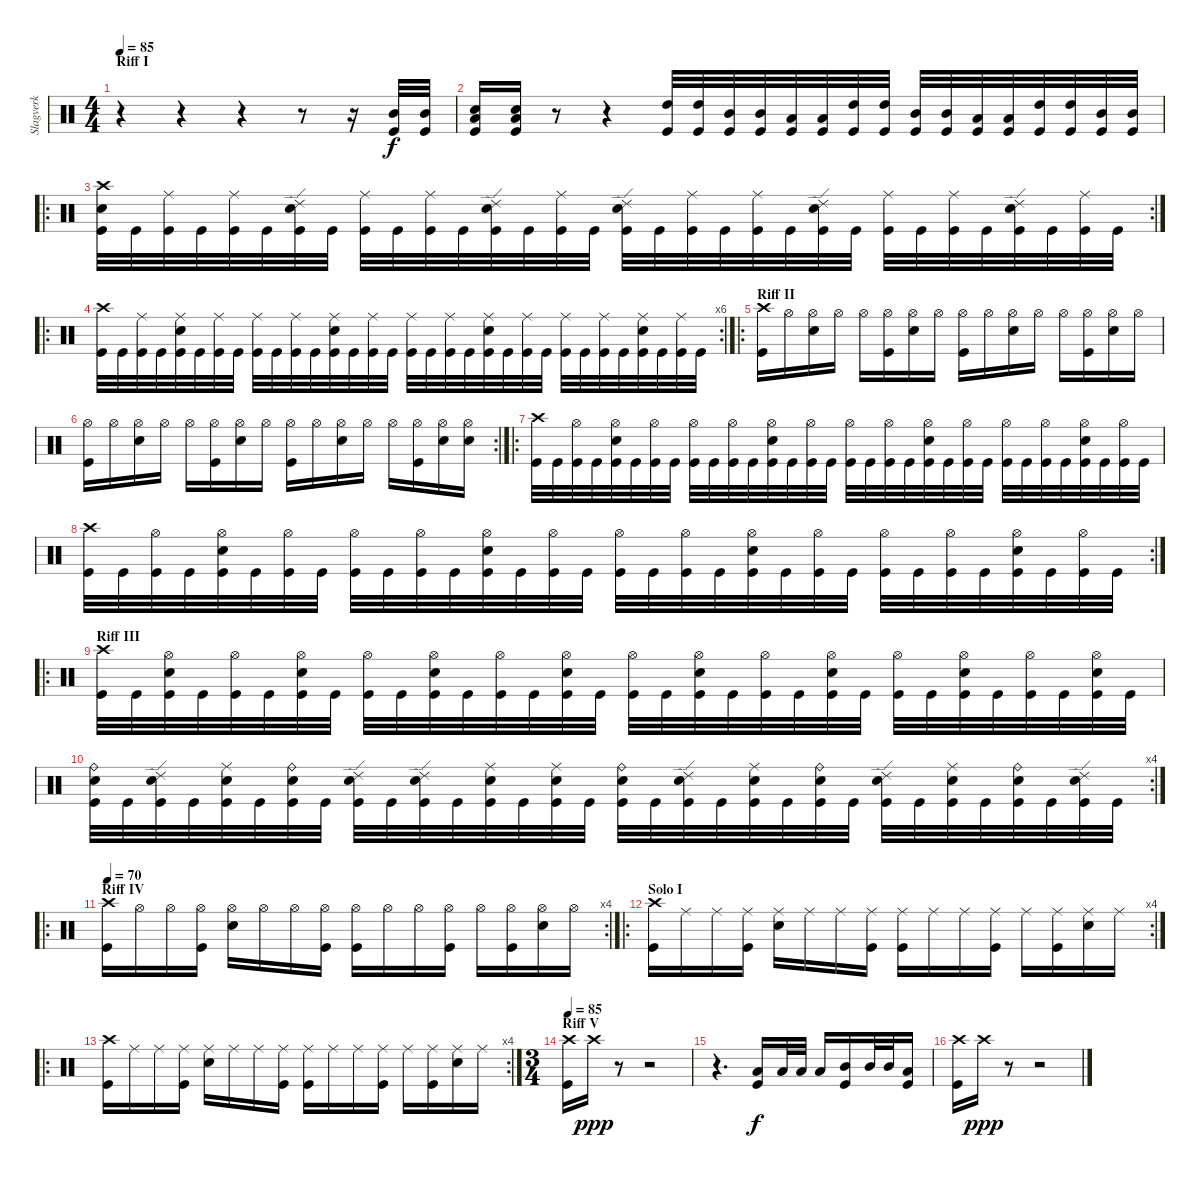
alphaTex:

\track ("Slagverk" "Slagverk") {instrument percussion}
\staff {score}
\articulation defaults
\ts (4 4)
\section ("" "Riff I")
\tempo 85
\clef neutral
\ks c
r.4{dy f} r.4 r.4 r.8 r.16 ("Mid Tom (hit)" "Kick (hit)").32 ("Mid Tom (hit)" "Kick (hit)").32 |
("Low Tom (hit)" "Snare (hit) 2" "Kick (hit)").16 ("Low Tom (hit)" "Snare (hit) 2" "Kick (hit)").16 r.8 r.4 ("High Tom (hit)" "Kick (hit)").32 ("High Tom (hit)" "Kick (hit)").32 ("Mid Tom (hit)" "Kick (hit)").32 ("Mid Tom (hit)" "Kick (hit)").32 ("Low Tom (hit)" "Kick (hit)").32 ("Low Tom (hit)" "Kick (hit)").32 ("High Tom (hit)" "Kick (hit)").32 ("High Tom (hit)" "Kick (hit)").32 ("Mid Tom (hit)" "Kick (hit)").32 ("Mid Tom (hit)" "Kick (hit)").32 ("Low Tom (hit)" "Kick (hit)").32 ("Low Tom (hit)" "Kick (hit)").32 ("High Tom (hit)" "Kick (hit)").32 ("High Tom (hit)" "Kick (hit)").32 ("Mid Tom (hit)" "Kick (hit)").32 ("Mid Tom (hit)" "Kick (hit)").32 |
\ro
\rc 2
("Crash high (hit)" "Snare (hit) 2" "Kick (hit)").32 "Kick (hit)".32 ("Ride (middle)" "Kick (hit)").32 "Kick (hit)".32 ("Ride (middle)" "Kick (hit)").32 "Kick (hit)".32 ("Ride (edge) 2" "Snare (hit) 2" "Kick (hit)").32 "Kick (hit)".32 ("Ride (middle)" "Kick (hit)").32 "Kick (hit)".32 ("Ride (middle)" "Kick (hit)").32 "Kick (hit)".32 ("Ride (edge) 2" "Snare (hit) 2" "Kick (hit)").32 "Kick (hit)".32 ("Ride (middle)" "Kick (hit)").32 "Kick (hit)".32 ("Ride (edge) 2" "Snare (hit) 2" "Kick (hit)").32 "Kick (hit)".32 ("Ride (middle)" "Kick (hit)").32 "Kick (hit)".32 ("Ride (middle)" "Kick (hit)").32 "Kick (hit)".32 ("Ride (edge) 2" "Snare (hit) 2" "Kick (hit)").32 "Kick (hit)".32 ("Ride (middle)" "Kick (hit)").32 "Kick (hit)".32 ("Ride (middle)" "Kick (hit)").32 "Kick (hit)".32 ("Ride (edge) 2" "Snare (hit) 2" "Kick (hit)").32 "Kick (hit)".32 ("Ride (middle)" "Kick (hit)").32 "Kick (hit)".32 |
\ro
\rc 6
("Crash high (hit)" "Kick (hit)").32 "Kick (hit)".32 ("Ride (middle)" "Kick (hit)").32 "Kick (hit)".32 ("Ride (middle)" "Snare (hit) 2" "Kick (hit)").32 "Kick (hit)".32 ("Ride (middle)" "Kick (hit)").32 "Kick (hit)".32 ("Ride (middle)" "Kick (hit)").32 "Kick (hit)".32 ("Ride (middle)" "Kick (hit)").32 "Kick (hit)".32 ("Ride (middle)" "Snare (hit) 2" "Kick (hit)").32 "Kick (hit)".32 ("Ride (middle)" "Kick (hit)").32 "Kick (hit)".32 ("Ride (middle)" "Kick (hit)").32 "Kick (hit)".32 ("Ride (middle)" "Kick (hit)").32 "Kick (hit)".32 ("Ride (middle)" "Snare (hit) 2" "Kick (hit)").32 "Kick (hit)".32 ("Ride (middle)" "Kick (hit)").32 "Kick (hit)".32 ("Ride (middle)" "Kick (hit)").32 "Kick (hit)".32 ("Ride (middle)" "Kick (hit)").32 "Kick (hit)".32 ("Ride (middle)" "Snare (hit) 2" "Kick (hit)").32 "Kick (hit)".32 ("Ride (middle)" "Kick (hit)").32 "Kick (hit)".32 |
\ro
\section ("" "Riff II")
("Crash high (hit)" "Kick (hit)").16 "Hi-Hat (open)".16 ("Hi-Hat (open)" "Snare (hit) 2").16 "Hi-Hat (open)".16 "Hi-Hat (open)".16 ("Hi-Hat (open)" "Kick (hit)").16 ("Hi-Hat (open)" "Snare (hit) 2").16 "Hi-Hat (open)".16 ("Hi-Hat (open)" "Kick (hit)").16 "Hi-Hat (open)".16 ("Hi-Hat (open)" "Snare (hit) 2").16 "Hi-Hat (open)".16 "Hi-Hat (open)".16 ("Hi-Hat (open)" "Kick (hit)").16 ("Hi-Hat (open)" "Snare (hit) 2").16 "Hi-Hat (open)".16 |
\rc 2
("Hi-Hat (open)" "Kick (hit)").16 "Hi-Hat (open)".16 ("Hi-Hat (open)" "Snare (hit) 2").16 "Hi-Hat (open)".16 "Hi-Hat (open)".16 ("Hi-Hat (open)" "Kick (hit)").16 ("Hi-Hat (open)" "Snare (hit) 2").16 "Hi-Hat (open)".16 ("Hi-Hat (open)" "Kick (hit)").16 "Hi-Hat (open)".16 ("Hi-Hat (open)" "Snare (hit) 2").16 "Hi-Hat (open)".16 "Hi-Hat (open)".16 ("Hi-Hat (open)" "Kick (hit)").16 ("Hi-Hat (open)" "Snare (hit) 2").16 ("Hi-Hat (open)" "Snare (hit) 2").16 |
\ro
("Crash high (hit)" "Kick (hit)").32 "Kick (hit)".32 ("Hi-Hat (open)" "Kick (hit)").32 "Kick (hit)".32 ("Hi-Hat (open)" "Snare (hit) 2" "Kick (hit)").32 "Kick (hit)".32 ("Hi-Hat (open)" "Kick (hit)").32 "Kick (hit)".32 ("Hi-Hat (open)" "Kick (hit)").32 "Kick (hit)".32 ("Hi-Hat (open)" "Kick (hit)").32 "Kick (hit)".32 ("Hi-Hat (open)" "Snare (hit) 2" "Kick (hit)").32 "Kick (hit)".32 ("Hi-Hat (open)" "Kick (hit)").32 "Kick (hit)".32 ("Hi-Hat (open)" "Kick (hit)").32 "Kick (hit)".32 ("Hi-Hat (open)" "Kick (hit)").32 "Kick (hit)".32 ("Hi-Hat (open)" "Snare (hit) 2" "Kick (hit)").32 "Kick (hit)".32 ("Hi-Hat (open)" "Kick (hit)").32 "Kick (hit)".32 ("Hi-Hat (open)" "Kick (hit)").32 "Kick (hit)".32 ("Hi-Hat (open)" "Kick (hit)").32 "Kick (hit)".32 ("Hi-Hat (open)" "Snare (hit) 2" "Kick (hit)").32 "Kick (hit)".32 ("Hi-Hat (open)" "Kick (hit)").32 "Kick (hit)".32 |
\rc 2
("Crash high (hit)" "Kick (hit)").32 "Kick (hit)".32 ("Hi-Hat (open)" "Kick (hit)").32 "Kick (hit)".32 ("Hi-Hat (open)" "Snare (hit) 2" "Kick (hit)").32 "Kick (hit)".32 ("Hi-Hat (open)" "Kick (hit)").32 "Kick (hit)".32 ("Hi-Hat (open)" "Kick (hit)").32 "Kick (hit)".32 ("Hi-Hat (open)" "Kick (hit)").32 "Kick (hit)".32 ("Hi-Hat (open)" "Snare (hit) 2" "Kick (hit)").32 "Kick (hit)".32 ("Hi-Hat (open)" "Kick (hit)").32 "Kick (hit)".32 ("Hi-Hat (open)" "Kick (hit)").32 "Kick (hit)".32 ("Hi-Hat (open)" "Kick (hit)").32 "Kick (hit)".32 ("Hi-Hat (open)" "Snare (hit) 2" "Kick (hit)").32 "Kick (hit)".32 ("Hi-Hat (open)" "Kick (hit)").32 "Kick (hit)".32 ("Hi-Hat (open)" "Kick (hit)").32 "Kick (hit)".32 ("Hi-Hat (open)" "Kick (hit)").32 "Kick (hit)".32 ("Hi-Hat (open)" "Snare (hit) 2" "Kick (hit)").32 "Kick (hit)".32 ("Hi-Hat (open)" "Kick (hit)").32 "Kick (hit)".32 |
\ro
\section ("" "Riff III")
("Crash high (hit)" "Kick (hit)").32 "Kick (hit)".32 ("Hi-Hat (open)" "Snare (hit) 2" "Kick (hit)").32 "Kick (hit)".32 ("Hi-Hat (open)" "Kick (hit)").32 "Kick (hit)".32 ("Hi-Hat (open)" "Snare (hit) 2" "Kick (hit)").32 "Kick (hit)".32 ("Hi-Hat (open)" "Kick (hit)").32 "Kick (hit)".32 ("Hi-Hat (open)" "Snare (hit) 2" "Kick (hit)").32 "Kick (hit)".32 ("Hi-Hat (open)" "Kick (hit)").32 "Kick (hit)".32 ("Hi-Hat (open)" "Snare (hit) 2" "Kick (hit)").32 "Kick (hit)".32 ("Hi-Hat (open)" "Kick (hit)").32 "Kick (hit)".32 ("Hi-Hat (open)" "Snare (hit) 2" "Kick (hit)").32 "Kick (hit)".32 ("Hi-Hat (open)" "Kick (hit)").32 "Kick (hit)".32 ("Hi-Hat (open)" "Snare (hit) 2" "Kick (hit)").32 "Kick (hit)".32 ("Hi-Hat (open)" "Kick (hit)").32 "Kick (hit)".32 ("Hi-Hat (open)" "Snare (hit) 2" "Kick (hit)").32 "Kick (hit)".32 ("Hi-Hat (open)" "Kick (hit)").32 "Kick (hit)".32 ("Hi-Hat (open)" "Snare (hit) 2" "Kick (hit)").32 "Kick (hit)".32 |
\rc 4
("Ride (bell)" "Snare (hit) 2" "Kick (hit)").32 "Kick (hit)".32 ("Ride (edge) 2" "Snare (hit) 2" "Kick (hit)").32 "Kick (hit)".32 ("Ride (middle)" "Snare (hit) 2" "Kick (hit)").32 "Kick (hit)".32 ("Ride (bell)" "Snare (hit) 2" "Kick (hit)").32 "Kick (hit)".32 ("Ride (edge) 2" "Snare (hit) 2" "Kick (hit)").32 "Kick (hit)".32 ("Ride (edge) 2" "Snare (hit) 2" "Kick (hit)").32 "Kick (hit)".32 ("Ride (middle)" "Snare (hit) 2" "Kick (hit)").32 "Kick (hit)".32 ("Ride (middle)" "Snare (hit) 2" "Kick (hit)").32 "Kick (hit)".32 ("Ride (bell)" "Snare (hit) 2" "Kick (hit)").32 "Kick (hit)".32 ("Ride (edge) 2" "Snare (hit) 2" "Kick (hit)").32 "Kick (hit)".32 ("Ride (middle)" "Snare (hit) 2" "Kick (hit)").32 "Kick (hit)".32 ("Ride (bell)" "Snare (hit) 2" "Kick (hit)").32 "Kick (hit)".32 ("Ride (edge) 2" "Snare (hit) 2" "Kick (hit)").32 "Kick (hit)".32 ("Ride (middle)" "Snare (hit) 2" "Kick (hit)").32 "Kick (hit)".32 ("Ride (bell)" "Snare (hit) 2" "Kick (hit)").32 "Kick (hit)".32 ("Ride (edge) 2" "Snare (hit) 2" "Kick (hit)").32 "Kick (hit)".32 |
\ro
\rc 4
\section ("" "Riff IV")
\tempo 70
("Crash high (hit)" "Kick (hit)").16 "Hi-Hat (open)".16 "Hi-Hat (open)".16 ("Hi-Hat (open)" "Kick (hit)").16 ("Hi-Hat (open)" "Snare (hit) 2").16 "Hi-Hat (open)".16 "Hi-Hat (open)".16 ("Hi-Hat (open)" "Kick (hit)").16 ("Hi-Hat (open)" "Kick (hit)").16 "Hi-Hat (open)".16 "Hi-Hat (open)".16 ("Hi-Hat (open)" "Kick (hit)").16 "Hi-Hat (open)".16 ("Hi-Hat (open)" "Kick (hit)").16 ("Hi-Hat (open)" "Snare (hit) 2").16 "Hi-Hat (open)".16 |
\ro
\rc 4
\section ("" "Solo I")
("Crash high (hit)" "Kick (hit)").16 "Ride (middle)".16 "Ride (middle)".16 ("Ride (middle)" "Kick (hit)").16 ("Ride (middle)" "Snare (hit) 2").16 "Ride (middle)".16 "Ride (middle)".16 ("Ride (middle)" "Kick (hit)").16 ("Ride (middle)" "Kick (hit)").16 "Ride (middle)".16 "Ride (middle)".16 ("Ride (middle)" "Kick (hit)").16 "Ride (middle)".16 ("Ride (middle)" "Kick (hit)").16 ("Ride (middle)" "Snare (hit) 2").16 "Ride (middle)".16 |
\ro
\rc 4
("Crash high (hit)" "Kick (hit)").16 "Ride (middle)".16 "Ride (middle)".16 ("Ride (middle)" "Kick (hit)").16 ("Ride (middle)" "Snare (hit) 2").16 "Ride (middle)".16 "Ride (middle)".16 ("Ride (middle)" "Kick (hit)").16 ("Ride (middle)" "Kick (hit)").16 "Ride (middle)".16 "Ride (middle)".16 ("Ride (middle)" "Kick (hit)").16 "Ride (middle)".16 ("Ride (middle)" "Kick (hit)").16 ("Ride (middle)" "Snare (hit) 2").16 "Ride (middle)".16 |
\ts (3 4)
\section ("" "Riff V")
\tempo 85
("Crash high (hit)" "Kick (hit)").16 "Crash high (hit)".16{dy ppp} r.8 r.2 |
r.4{d} ("Low Tom (hit)" "Kick (hit)").16{dy f} "Low Tom (hit)".32 "Low Tom (hit)".32 "Low Tom (hit)".16 ("Mid Tom (hit)" "Kick (hit)").16 "Mid Tom (hit)".32 "Mid Tom (hit)".32 ("Low Tom (hit)" "Kick (hit)").16 |
("Crash high (hit)" "Kick (hit)").16 "Crash high (hit)".16{dy ppp} r.8 r.2
